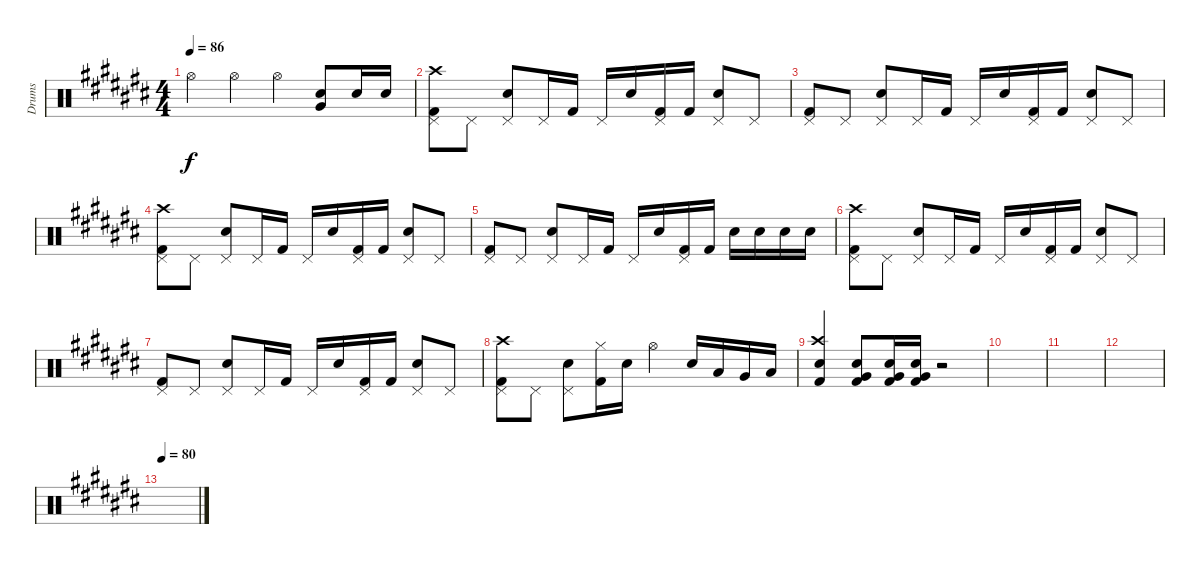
\track ("Drums" "Drums") {instrument percussion}
\staff {score}
\articulation defaults
\ts (4 4)
\tempo 86
\clef neutral
\ks c# "Hi-Hat (open)".4{dy f} "Hi-Hat (open)".4 "Hi-Hat (open)".4
("Very Low Tom (hit)" "Electric Snare (hit)").8 "Electric Snare (hit)".16 "Electric Snare (hit)".16 |
("Crash high (hit)" "Pedal Hi-Hat (hit)" "Kick (hit) 2").8 "Pedal Hi-Hat (hit)".8 ("Pedal Hi-Hat (hit)" "Electric Snare (hit)").8 "Pedal Hi-Hat (hit)".16 "Kick (hit) 2".16 "Pedal Hi-Hat (hit)".16 "Electric Snare (hit)".16 ("Pedal Hi-Hat (hit)" "Kick (hit) 2").16 "Kick (hit) 2".16 ("Pedal Hi-Hat (hit)" "Electric Snare (hit)").8 "Pedal Hi-Hat (hit)".8 |
("Pedal Hi-Hat (hit)" "Kick (hit) 2").8 "Pedal Hi-Hat (hit)".8 ("Pedal Hi-Hat (hit)" "Electric Snare (hit)").8 "Pedal Hi-Hat (hit)".16 "Kick (hit) 2".16 "Pedal Hi-Hat (hit)".16 "Electric Snare (hit)".16 ("Pedal Hi-Hat (hit)" "Kick (hit) 2").16 "Kick (hit) 2".16 ("Pedal Hi-Hat (hit)" "Electric Snare (hit)").8 "Pedal Hi-Hat (hit)".8 |
("Crash high (hit)" "Pedal Hi-Hat (hit)" "Kick (hit) 2").8 "Pedal Hi-Hat (hit)".8 ("Pedal Hi-Hat (hit)" "Electric Snare (hit)").8 "Pedal Hi-Hat (hit)".16 "Kick (hit) 2".16 "Pedal Hi-Hat (hit)".16 "Electric Snare (hit)".16 ("Pedal Hi-Hat (hit)" "Kick (hit) 2").16 "Kick (hit) 2".16 ("Pedal Hi-Hat (hit)" "Electric Snare (hit)").8 "Pedal Hi-Hat (hit)".8 |
("Pedal Hi-Hat (hit)" "Kick (hit) 2").8 "Pedal Hi-Hat (hit)".8 ("Pedal Hi-Hat (hit)" "Electric Snare (hit)").8 "Pedal Hi-Hat (hit)".16 "Kick (hit) 2".16 "Pedal Hi-Hat (hit)".16 "Electric Snare (hit)".16 ("Pedal Hi-Hat (hit)" "Kick (hit) 2").16 "Kick (hit) 2".16 "Electric Snare (hit)".16 "Electric Snare (hit)".16 "Electric Snare (hit)".16 "Electric Snare (hit)".16 |
("Crash high (hit)" "Pedal Hi-Hat (hit)" "Kick (hit) 2").8 "Pedal Hi-Hat (hit)".8 ("Pedal Hi-Hat (hit)" "Electric Snare (hit)").8 "Pedal Hi-Hat (hit)".16 "Kick (hit) 2".16 "Pedal Hi-Hat (hit)".16 "Electric Snare (hit)".16 ("Pedal Hi-Hat (hit)" "Kick (hit) 2").16 "Kick (hit) 2".16 ("Pedal Hi-Hat (hit)" "Electric Snare (hit)").8 "Pedal Hi-Hat (hit)".8 |
("Pedal Hi-Hat (hit)" "Kick (hit) 2").8 "Pedal Hi-Hat (hit)".8 ("Pedal Hi-Hat (hit)" "Electric Snare (hit)").8 "Pedal Hi-Hat (hit)".16 "Kick (hit) 2".16 "Pedal Hi-Hat (hit)".16 "Electric Snare (hit)".16 ("Pedal Hi-Hat (hit)" "Kick (hit) 2").16 "Kick (hit) 2".16 ("Pedal Hi-Hat (hit)" "Electric Snare (hit)").8 "Pedal Hi-Hat (hit)".8 |
("Crash high (hit)" "Pedal Hi-Hat (hit)" "Kick (hit) 2").8 "Pedal Hi-Hat (hit)".8 ("Pedal Hi-Hat (hit)" "Electric Snare (hit)").8 ("Hi-Hat (closed)" "Kick (hit) 2").16 "Electric Snare (hit)".16 "Hi-Hat (open)".4 "Electric Snare (hit)".16 "Low Tom (hit)".16 "Very Low Tom (hit)".16 "Low Floor Tom (hit)".16 |
("Crash high (hit)" "Electric Snare (hit)" "Kick (hit) 2").4 ("Very Low Tom (hit)" "Electric Snare (hit)" "Kick (hit) 2").8 ("Very Low Tom (hit)" "Electric Snare (hit)" "Kick (hit) 2").16 ("Very Low Tom (hit)" "Electric Snare (hit)" "Kick (hit) 2").16 r.2 |
|
|
|
\tempo 80
